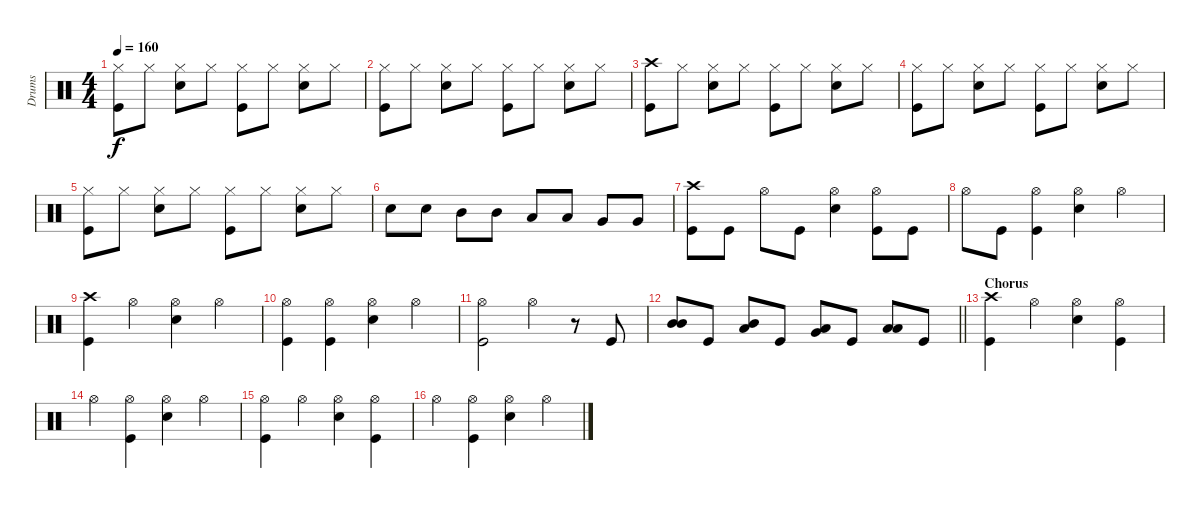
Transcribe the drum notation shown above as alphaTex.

\track ("Drums" "Drums") {instrument percussion}
\staff {score}
\articulation defaults
\ts (4 4)
\tempo 160
\clef neutral
\ks c
("Kick (hit)" "Hi-Hat (closed)").8{dy f} "Hi-Hat (closed)".8 ("Hi-Hat (closed)" "Snare (hit) 2").8 "Hi-Hat (closed)".8 ("Kick (hit)" "Hi-Hat (closed)").8 "Hi-Hat (closed)".8 ("Hi-Hat (closed)" "Snare (hit) 2").8 "Hi-Hat (closed)".8 |
("Kick (hit)" "Hi-Hat (closed)").8 "Hi-Hat (closed)".8 ("Hi-Hat (closed)" "Snare (hit) 2").8 "Hi-Hat (closed)".8 ("Kick (hit)" "Hi-Hat (closed)").8 "Hi-Hat (closed)".8 ("Hi-Hat (closed)" "Snare (hit) 2").8 "Hi-Hat (closed)".8 |
("Kick (hit)" "Crash high (hit)").8 "Hi-Hat (closed)".8 ("Hi-Hat (closed)" "Snare (hit) 2").8 "Hi-Hat (closed)".8 ("Kick (hit)" "Hi-Hat (closed)").8 "Hi-Hat (closed)".8 ("Hi-Hat (closed)" "Snare (hit) 2").8 "Hi-Hat (closed)".8 |
("Kick (hit)" "Hi-Hat (closed)").8 "Hi-Hat (closed)".8 ("Hi-Hat (closed)" "Snare (hit) 2").8 "Hi-Hat (closed)".8 ("Kick (hit)" "Hi-Hat (closed)").8 "Hi-Hat (closed)".8 ("Hi-Hat (closed)" "Snare (hit) 2").8 "Hi-Hat (closed)".8 |
("Kick (hit)" "Hi-Hat (closed)").8 "Hi-Hat (closed)".8 ("Hi-Hat (closed)" "Snare (hit) 2").8 "Hi-Hat (closed)".8 ("Kick (hit)" "Hi-Hat (closed)").8 "Hi-Hat (closed)".8 ("Hi-Hat (closed)" "Snare (hit) 2").8 "Hi-Hat (closed)".8 |
"Snare (hit) 2".8 "Snare (hit) 2".8 "Mid Tom (hit)".8 "Mid Tom (hit)".8 "Low Tom (hit)".8 "Low Tom (hit)".8 "Very Low Tom (hit)".8 "Very Low Tom (hit)".8 |
("Kick (hit)" "Crash high (hit)").8 "Kick (hit)".8 "Hi-Hat (open)".8 "Kick (hit)".8 ("Hi-Hat (open)" "Snare (hit) 2").4 ("Hi-Hat (open)" "Kick (hit)").8 "Kick (hit)".8 |
"Hi-Hat (open)".8 "Kick (hit)".8 ("Hi-Hat (open)" "Kick (hit)").4 ("Hi-Hat (open)" "Snare (hit) 2").4 "Hi-Hat (open)".4 |
("Kick (hit)" "Crash high (hit)").4 "Hi-Hat (open)".4 ("Hi-Hat (open)" "Snare (hit) 2").4 "Hi-Hat (open)".4 |
("Kick (hit)" "Hi-Hat (open)").4 ("Hi-Hat (open)" "Kick (hit)").4 ("Hi-Hat (open)" "Snare (hit) 2").4 "Hi-Hat (open)".4 |
("Kick (hit)" "Hi-Hat (open)").2 "Hi-Hat (open)".4 r.8 "Kick (hit)".8 |
\barLineRight lightlight
("Mid Tom (hit)" "Mid Tom (hit)").8 "Kick (hit)".8 ("Low Tom (hit)" "Mid Tom (hit)").8 "Kick (hit)".8 ("Very Low Tom (hit)" "Low Tom (hit)").8 "Kick (hit)".8 ("Low Floor Tom (hit)" "Low Floor Tom (hit)").8 "Kick (hit)".8 |
\section ("" "Chorus")
("Kick (hit)" "Crash high (hit)").4 "Hi-Hat (open)".4 ("Snare (hit) 2" "Hi-Hat (open)").4 ("Kick (hit)" "Hi-Hat (open)").4 |
"Hi-Hat (open)".4 ("Hi-Hat (open)" "Kick (hit)").4 ("Snare (hit) 2" "Hi-Hat (open)").4 "Hi-Hat (open)".4 |
("Kick (hit)" "Hi-Hat (open)").4 "Hi-Hat (open)".4 ("Snare (hit) 2" "Hi-Hat (open)").4 ("Kick (hit)" "Hi-Hat (open)").4 |
"Hi-Hat (open)".4 ("Kick (hit)" "Hi-Hat (open)").4 ("Snare (hit) 2" "Hi-Hat (open)").4 "Hi-Hat (open)".4
